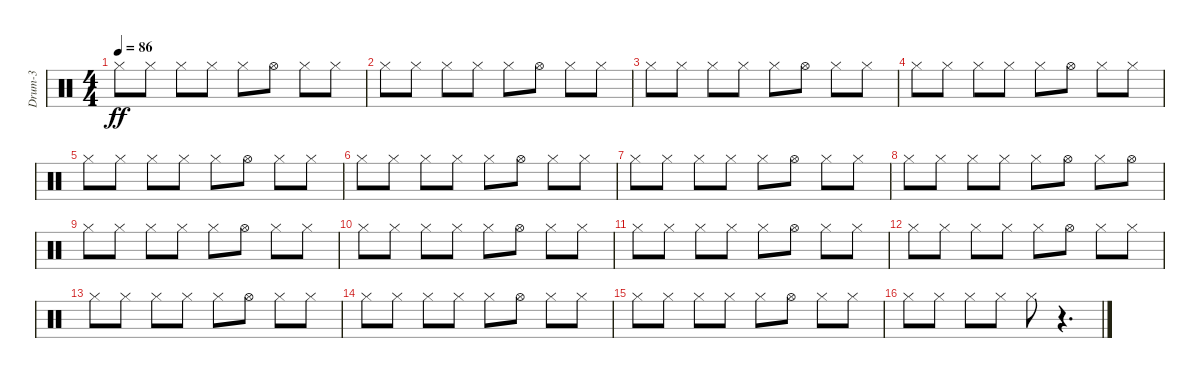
\track ("Drum-3" "Drum-3") {instrument percussion}
\staff {score}
\articulation defaults
\ts (4 4)
\tempo 86
\clef neutral
\ks c "Hi-Hat (closed)".8{dy ff} "Hi-Hat (closed)".8 "Hi-Hat (closed)".8 "Hi-Hat (closed)".8 "Hi-Hat (closed)".8 "Hi-Hat (open)".8 "Hi-Hat (closed)".8 "Hi-Hat (closed)".8
|
"Hi-Hat (closed)".8 "Hi-Hat (closed)".8 "Hi-Hat (closed)".8 "Hi-Hat (closed)".8 "Hi-Hat (closed)".8 "Hi-Hat (open)".8 "Hi-Hat (closed)".8 "Hi-Hat (closed)".8 |
"Hi-Hat (closed)".8 "Hi-Hat (closed)".8 "Hi-Hat (closed)".8 "Hi-Hat (closed)".8 "Hi-Hat (closed)".8 "Hi-Hat (open)".8 "Hi-Hat (closed)".8 "Hi-Hat (closed)".8 |
"Hi-Hat (closed)".8 "Hi-Hat (closed)".8 "Hi-Hat (closed)".8 "Hi-Hat (closed)".8 "Hi-Hat (closed)".8 "Hi-Hat (open)".8 "Hi-Hat (closed)".8 "Hi-Hat (closed)".8 |
"Hi-Hat (closed)".8 "Hi-Hat (closed)".8 "Hi-Hat (closed)".8 "Hi-Hat (closed)".8 "Hi-Hat (closed)".8 "Hi-Hat (open)".8 "Hi-Hat (closed)".8 "Hi-Hat (closed)".8 |
"Hi-Hat (closed)".8 "Hi-Hat (closed)".8 "Hi-Hat (closed)".8 "Hi-Hat (closed)".8 "Hi-Hat (closed)".8 "Hi-Hat (open)".8 "Hi-Hat (closed)".8 "Hi-Hat (closed)".8 |
"Hi-Hat (closed)".8 "Hi-Hat (closed)".8 "Hi-Hat (closed)".8 "Hi-Hat (closed)".8 "Hi-Hat (closed)".8 "Hi-Hat (open)".8 "Hi-Hat (closed)".8 "Hi-Hat (closed)".8 |
"Hi-Hat (closed)".8 "Hi-Hat (closed)".8 "Hi-Hat (closed)".8 "Hi-Hat (closed)".8 "Hi-Hat (closed)".8 "Hi-Hat (open)".8 "Hi-Hat (closed)".8 "Hi-Hat (open)".8 |
"Hi-Hat (closed)".8 "Hi-Hat (closed)".8 "Hi-Hat (closed)".8 "Hi-Hat (closed)".8 "Hi-Hat (closed)".8 "Hi-Hat (open)".8 "Hi-Hat (closed)".8 "Hi-Hat (closed)".8 |
"Hi-Hat (closed)".8 "Hi-Hat (closed)".8 "Hi-Hat (closed)".8 "Hi-Hat (closed)".8 "Hi-Hat (closed)".8 "Hi-Hat (open)".8 "Hi-Hat (closed)".8 "Hi-Hat (closed)".8 |
"Hi-Hat (closed)".8 "Hi-Hat (closed)".8 "Hi-Hat (closed)".8 "Hi-Hat (closed)".8 "Hi-Hat (closed)".8 "Hi-Hat (open)".8 "Hi-Hat (closed)".8 "Hi-Hat (closed)".8 |
"Hi-Hat (closed)".8 "Hi-Hat (closed)".8 "Hi-Hat (closed)".8 "Hi-Hat (closed)".8 "Hi-Hat (closed)".8 "Hi-Hat (open)".8 "Hi-Hat (closed)".8 "Hi-Hat (closed)".8 |
"Hi-Hat (closed)".8 "Hi-Hat (closed)".8 "Hi-Hat (closed)".8 "Hi-Hat (closed)".8 "Hi-Hat (closed)".8 "Hi-Hat (open)".8 "Hi-Hat (closed)".8 "Hi-Hat (closed)".8 |
"Hi-Hat (closed)".8 "Hi-Hat (closed)".8 "Hi-Hat (closed)".8 "Hi-Hat (closed)".8 "Hi-Hat (closed)".8 "Hi-Hat (open)".8 "Hi-Hat (closed)".8 "Hi-Hat (closed)".8 |
"Hi-Hat (closed)".8 "Hi-Hat (closed)".8 "Hi-Hat (closed)".8 "Hi-Hat (closed)".8 "Hi-Hat (closed)".8 "Hi-Hat (open)".8 "Hi-Hat (closed)".8 "Hi-Hat (closed)".8 |
"Hi-Hat (closed)".8 "Hi-Hat (closed)".8 "Hi-Hat (closed)".8 "Hi-Hat (closed)".8 "Hi-Hat (closed)".8 r.4{d}
